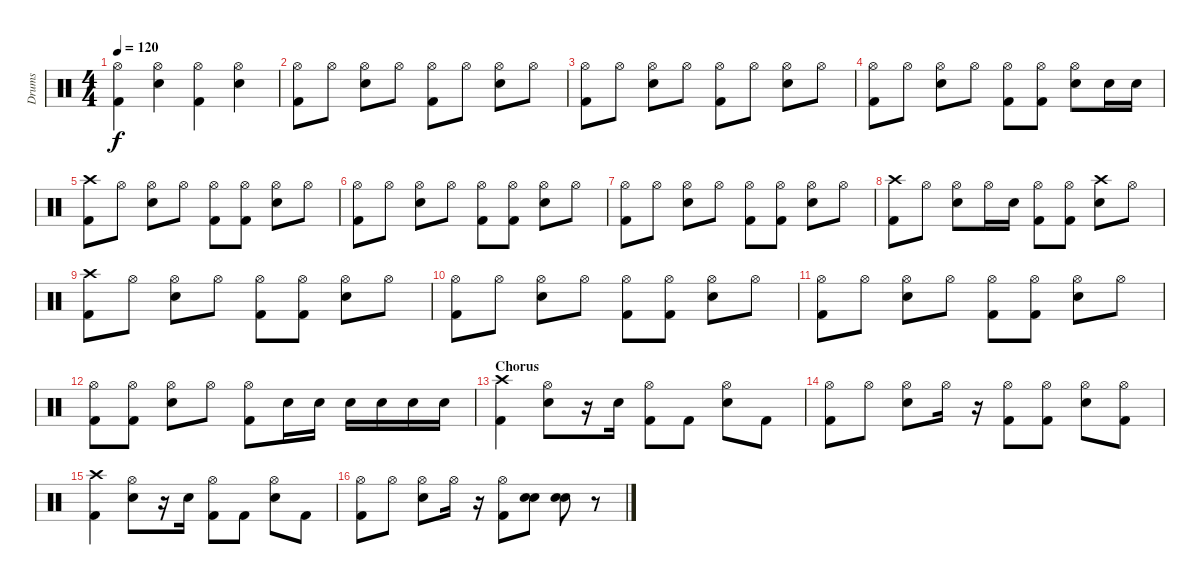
\track ("Drums" "Drums") {instrument percussion}
\staff {score}
\articulation defaults
\ts (4 4)
\tempo 120
\clef neutral
\ks c
("Hi-Hat (open)" "Kick (hit) 2").4{dy f} ("Hi-Hat (open)" "Snare (hit) 2").4 ("Hi-Hat (open)" "Kick (hit) 2").4 ("Hi-Hat (open)" "Snare (hit) 2").4 |
("Hi-Hat (open)" "Kick (hit) 2").8 "Hi-Hat (open)".8 ("Hi-Hat (open)" "Snare (hit) 2").8 "Hi-Hat (open)".8 ("Hi-Hat (open)" "Kick (hit) 2").8 "Hi-Hat (open)".8 ("Hi-Hat (open)" "Snare (hit) 2").8 "Hi-Hat (open)".8 |
("Hi-Hat (open)" "Kick (hit) 2").8 "Hi-Hat (open)".8 ("Hi-Hat (open)" "Snare (hit) 2").8 "Hi-Hat (open)".8 ("Hi-Hat (open)" "Kick (hit) 2").8 "Hi-Hat (open)".8 ("Hi-Hat (open)" "Snare (hit) 2").8 "Hi-Hat (open)".8 |
("Hi-Hat (open)" "Kick (hit) 2").8 "Hi-Hat (open)".8 ("Hi-Hat (open)" "Snare (hit) 2").8 "Hi-Hat (open)".8 ("Hi-Hat (open)" "Kick (hit) 2").8 ("Hi-Hat (open)" "Kick (hit) 2").8 ("Hi-Hat (open)" "Snare (hit) 2").8 "Snare (hit) 2".16 "Snare (hit) 2".16 |
("Crash high (hit)" "Kick (hit) 2").8 "Hi-Hat (open)".8 ("Hi-Hat (open)" "Snare (hit) 2").8 "Hi-Hat (open)".8 ("Hi-Hat (open)" "Kick (hit) 2").8 ("Hi-Hat (open)" "Kick (hit) 2").8 ("Hi-Hat (open)" "Snare (hit) 2").8 "Hi-Hat (open)".8 |
("Hi-Hat (open)" "Kick (hit) 2").8 "Hi-Hat (open)".8 ("Hi-Hat (open)" "Snare (hit) 2").8 "Hi-Hat (open)".8 ("Hi-Hat (open)" "Kick (hit) 2").8 ("Hi-Hat (open)" "Kick (hit) 2").8 ("Hi-Hat (open)" "Snare (hit) 2").8 "Hi-Hat (open)".8 |
("Hi-Hat (open)" "Kick (hit) 2").8 "Hi-Hat (open)".8 ("Hi-Hat (open)" "Snare (hit) 2").8 "Hi-Hat (open)".8 ("Hi-Hat (open)" "Kick (hit) 2").8 ("Hi-Hat (open)" "Kick (hit) 2").8 ("Hi-Hat (open)" "Snare (hit) 2").8 "Hi-Hat (open)".8 |
("Crash high (hit)" "Kick (hit) 2").8 "Hi-Hat (open)".8 ("Hi-Hat (open)" "Snare (hit) 2").8 "Hi-Hat (open)".16 "Snare (hit) 2".16 ("Hi-Hat (open)" "Kick (hit) 2").8 ("Hi-Hat (open)" "Kick (hit) 2").8 ("Crash high (hit)" "Snare (hit) 2").8 "Hi-Hat (open)".8 |
("Crash high (hit)" "Kick (hit) 2").8 "Hi-Hat (open)".8 ("Hi-Hat (open)" "Snare (hit) 2").8 "Hi-Hat (open)".8 ("Hi-Hat (open)" "Kick (hit) 2").8 ("Hi-Hat (open)" "Kick (hit) 2").8 ("Hi-Hat (open)" "Snare (hit) 2").8 "Hi-Hat (open)".8 |
("Hi-Hat (open)" "Kick (hit) 2").8 "Hi-Hat (open)".8 ("Hi-Hat (open)" "Snare (hit) 2").8 "Hi-Hat (open)".8 ("Hi-Hat (open)" "Kick (hit) 2").8 ("Hi-Hat (open)" "Kick (hit) 2").8 ("Hi-Hat (open)" "Snare (hit) 2").8 "Hi-Hat (open)".8 |
("Hi-Hat (open)" "Kick (hit) 2").8 "Hi-Hat (open)".8 ("Hi-Hat (open)" "Snare (hit) 2").8 "Hi-Hat (open)".8 ("Hi-Hat (open)" "Kick (hit) 2").8 ("Hi-Hat (open)" "Kick (hit) 2").8 ("Hi-Hat (open)" "Snare (hit) 2").8 "Hi-Hat (open)".8 |
("Hi-Hat (open)" "Kick (hit) 2").8 ("Hi-Hat (open)" "Kick (hit) 2").8 ("Hi-Hat (open)" "Snare (hit) 2").8 "Hi-Hat (open)".8 ("Hi-Hat (open)" "Kick (hit) 2").8 "Snare (hit) 2".16 "Snare (hit) 2".16 "Snare (hit) 2".16 "Snare (hit) 2".16 "Snare (hit) 2".16 "Snare (hit) 2".16 |
\section ("" "Chorus")
("Crash high (hit)" "Kick (hit) 2").4 ("Hi-Hat (open)" "Snare (hit) 2").8 r.16 "Snare (hit) 2".16 ("Hi-Hat (open)" "Kick (hit) 2").8 "Kick (hit) 2".8 ("Hi-Hat (open)" "Snare (hit) 2").8 "Kick (hit) 2".8 |
("Hi-Hat (open)" "Kick (hit) 2").8 "Hi-Hat (open)".8 ("Hi-Hat (open)" "Snare (hit) 2").8 "Hi-Hat (open)".16 r.16 ("Hi-Hat (open)" "Kick (hit) 2").8 ("Hi-Hat (open)" "Kick (hit) 2").8 ("Hi-Hat (open)" "Snare (hit) 2").8 ("Hi-Hat (open)" "Kick (hit) 2").8 |
("Crash high (hit)" "Kick (hit) 2").4 ("Hi-Hat (open)" "Snare (hit) 2").8 r.16 "Snare (hit) 2".16 ("Hi-Hat (open)" "Kick (hit) 2").8 "Kick (hit) 2".8 ("Hi-Hat (open)" "Snare (hit) 2").8 "Kick (hit) 2".8 |
("Hi-Hat (open)" "Kick (hit) 2").8 "Hi-Hat (open)".8 ("Hi-Hat (open)" "Snare (hit) 2").8 "Hi-Hat (open)".16 r.16 ("Hi-Hat (open)" "Kick (hit) 2").8 ("Snare (hit) 2" "Snare (hit) 2").8 ("Snare (hit) 2" "Snare (hit) 2").8 r.8
